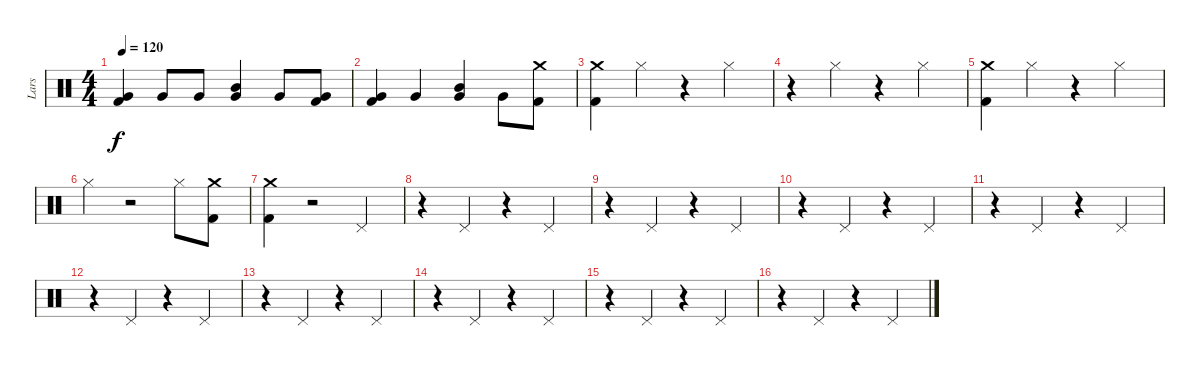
\track ("Lars" "Lars") {instrument percussion}
\staff {score}
\articulation defaults
\ts (4 4)
\tempo 120
\clef neutral
\ks c
("Kick (hit) 2" "Very Low Tom (hit)").4{dy f} "Very Low Tom (hit)".8 "Very Low Tom (hit)".8 ("Mid Tom (hit)" "Very Low Tom (hit)").4 "Very Low Tom (hit)".8 ("Kick (hit) 2" "Very Low Tom (hit)").8 |
("Kick (hit) 2" "Very Low Tom (hit)").4 "Very Low Tom (hit)".4 ("Very Low Tom (hit)" "Mid Tom (hit)").4 "Very Low Tom (hit)".8 ("Kick (hit) 2" "Crash medium (hit)").8 |
("Crash medium (hit)" "Kick (hit) 2").4 "Hi-Hat (closed)".4 r.4 "Hi-Hat (closed)".4 |
r.4 "Hi-Hat (closed)".4 r.4 "Hi-Hat (closed)".4 |
("Kick (hit) 2" "Crash medium (hit)").4 "Hi-Hat (closed)".4 r.4 "Hi-Hat (closed)".4 |
"Hi-Hat (closed)".4 r.2 "Hi-Hat (closed)".8 ("Kick (hit) 2" "Crash medium (hit)").8 |
("Crash medium (hit)" "Kick (hit) 2").4 r.2 "Pedal Hi-Hat (hit)".4 |
r.4 "Pedal Hi-Hat (hit)".4 r.4 "Pedal Hi-Hat (hit)".4 |
r.4 "Pedal Hi-Hat (hit)".4 r.4 "Pedal Hi-Hat (hit)".4 |
r.4 "Pedal Hi-Hat (hit)".4 r.4 "Pedal Hi-Hat (hit)".4 |
r.4 "Pedal Hi-Hat (hit)".4 r.4 "Pedal Hi-Hat (hit)".4 |
r.4 "Pedal Hi-Hat (hit)".4 r.4 "Pedal Hi-Hat (hit)".4 |
r.4 "Pedal Hi-Hat (hit)".4 r.4 "Pedal Hi-Hat (hit)".4 |
r.4 "Pedal Hi-Hat (hit)".4 r.4 "Pedal Hi-Hat (hit)".4 |
r.4 "Pedal Hi-Hat (hit)".4 r.4 "Pedal Hi-Hat (hit)".4 |
r.4 "Pedal Hi-Hat (hit)".4 r.4 "Pedal Hi-Hat (hit)".4
